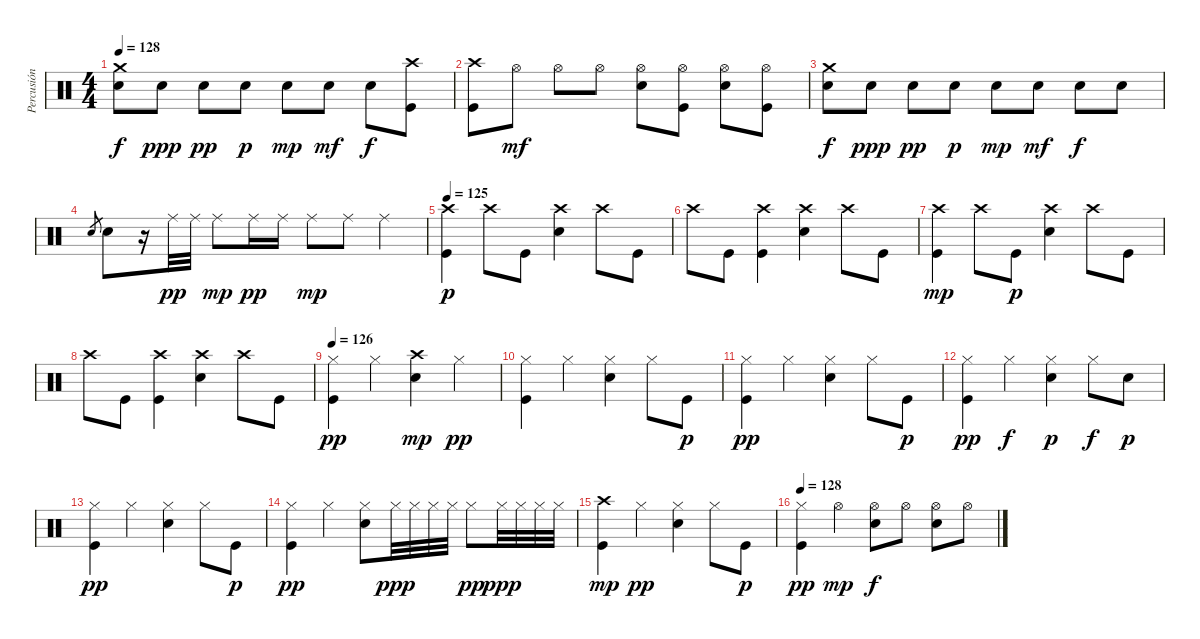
\track ("Percusión" "Percusión") {instrument percussion}
\staff {score}
\articulation defaults
\ts (4 4)
\tempo 128
\clef neutral
\ks c
("Snare (hit) 2" "Crash medium (hit)").8{dy f} "Snare (hit) 2".8{dy ppp} "Snare (hit) 2".8{dy pp} "Snare (hit) 2".8{dy p} "Snare (hit) 2".8{dy mp} "Snare (hit) 2".8{dy mf} "Snare (hit) 2".8{dy f} ("Kick (hit)" "Crash high (hit)").8 |
("Kick (hit)" "Crash high (hit)").8 "Hi-Hat (open)".8{dy mf} "Hi-Hat (open)".8 "Hi-Hat (open)".8 ("Snare (hit) 2" "Hi-Hat (open)").8 ("Kick (hit)" "Hi-Hat (open)").8 ("Snare (hit) 2" "Hi-Hat (open)").8 ("Kick (hit)" "Hi-Hat (open)").8 |
("Snare (hit) 2" "Crash medium (hit)").8{dy f} "Snare (hit) 2".8{dy ppp} "Snare (hit) 2".8{dy pp} "Snare (hit) 2".8{dy p} "Snare (hit) 2".8{dy mp} "Snare (hit) 2".8{dy mf} "Snare (hit) 2".8{dy f} "Snare (hit) 2".8 |
"Snare (hit) 2".8{gr} "Snare (hit) 2".8 r.16 "Ride (middle)".32{dy pp} "Ride (middle)".32 "Ride (middle)".8{dy mp} "Ride (middle)".16{dy pp} "Ride (middle)".16 "Ride (middle)".8{dy mp} "Ride (middle)".8 "Ride (middle)".4 |
\tempo 125
("Kick (hit)" "Crash high (hit)").4{dy p} "Crash high (hit)".8 "Kick (hit)".8 ("Snare (hit) 2" "Crash high (hit)").4 "Crash high (hit)".8 "Kick (hit)".8 |
"Crash high (hit)".8 "Kick (hit)".8 ("Kick (hit)" "Crash high (hit)").4 ("Snare (hit) 2" "Crash high (hit)").4 "Crash high (hit)".8 "Kick (hit)".8 |
("Kick (hit)" "Crash high (hit)").4{dy mp} "Crash high (hit)".8 "Kick (hit)".8{dy p} ("Snare (hit) 2" "Crash high (hit)").4 "Crash high (hit)".8 "Kick (hit)".8 |
"Crash high (hit)".8 "Kick (hit)".8 ("Kick (hit)" "Crash high (hit)").4 ("Snare (hit) 2" "Crash high (hit)").4 "Crash high (hit)".8 "Kick (hit)".8 |
\tempo 126
("Kick (hit)" "Hi-Hat (closed)").4{dy pp} "Hi-Hat (closed)".4 ("Snare (hit) 2" "Crash high (hit)").4{dy mp} "Hi-Hat (closed)".4{dy pp} |
("Kick (hit)" "Hi-Hat (closed)").4 "Hi-Hat (closed)".4 ("Snare (hit) 2" "Hi-Hat (closed)").4 "Hi-Hat (closed)".8 "Kick (hit)".8{dy p} |
("Kick (hit)" "Hi-Hat (closed)").4{dy pp} "Hi-Hat (closed)".4 ("Snare (hit) 2" "Hi-Hat (closed)").4 "Hi-Hat (closed)".8 "Kick (hit)".8{dy p} |
("Kick (hit)" "Hi-Hat (closed)").4{dy pp} "Hi-Hat (closed)".4{dy f} ("Snare (hit) 2" "Hi-Hat (closed)").4{dy p} "Hi-Hat (closed)".8{dy f} "Snare (hit) 2".8{dy p} |
("Kick (hit)" "Hi-Hat (closed)").4{dy pp} "Hi-Hat (closed)".4 ("Snare (hit) 2" "Hi-Hat (closed)").4 "Hi-Hat (closed)".8 "Kick (hit)".8{dy p} |
("Kick (hit)" "Hi-Hat (closed)").4{dy pp} "Hi-Hat (closed)".4 ("Snare (hit) 2" "Hi-Hat (closed)").8 "Hi-Hat (closed)".32{dy ppp} "Hi-Hat (closed)".32 "Hi-Hat (closed)".32 "Hi-Hat (closed)".32 "Hi-Hat (closed)".8{dy pp} "Hi-Hat (closed)".32{dy ppp} "Hi-Hat (closed)".32 "Hi-Hat (closed)".32 "Hi-Hat (closed)".32 |
("Kick (hit)" "Crash high (hit)").4{dy mp} "Hi-Hat (closed)".4{dy pp} ("Snare (hit) 2" "Hi-Hat (closed)").4 "Hi-Hat (closed)".8 "Kick (hit)".8{dy p} |
\tempo 128
("Kick (hit)" "Hi-Hat (closed)").4{dy pp} "Hi-Hat (open)".4{dy mp} ("Snare (hit) 2" "Hi-Hat (open)").8{dy f} "Hi-Hat (open)".8 ("Snare (hit) 2" "Hi-Hat (open)").8 "Hi-Hat (open)".8
